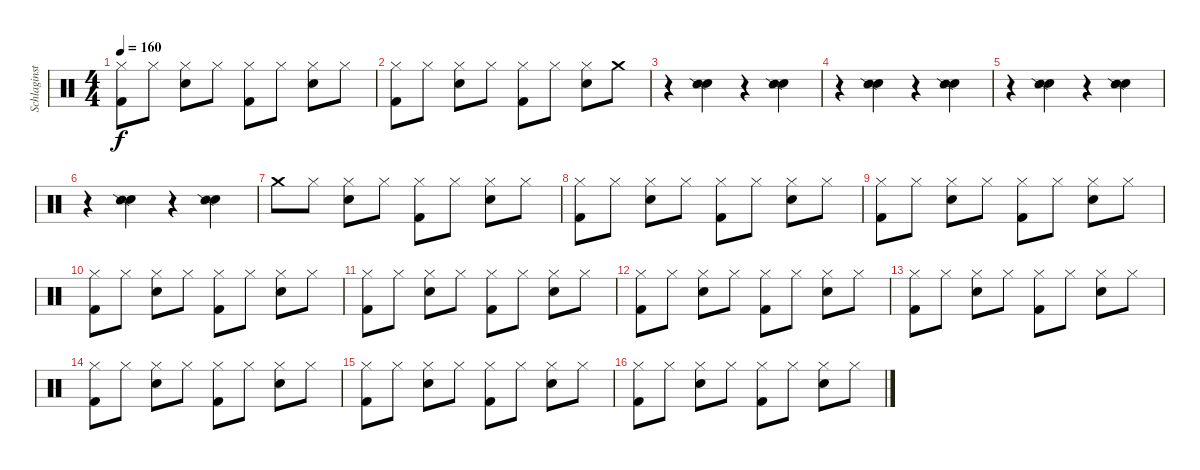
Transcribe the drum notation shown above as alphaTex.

\track ("Schlaginstrumente - Auswahl" "Schlaginst") {instrument percussion}
\staff {score}
\articulation defaults
\ts (4 4)
\tempo 160
\clef neutral
\ks c
("Hi-Hat (closed)" "Kick (hit) 2").8{dy f} "Hi-Hat (closed)".8 ("Hi-Hat (closed)" "Snare (hit) 2").8 "Hi-Hat (closed)".8 ("Hi-Hat (closed)" "Kick (hit) 2").8 "Hi-Hat (closed)".8 ("Hi-Hat (closed)" "Snare (hit) 2").8 "Hi-Hat (closed)".8 |
("Hi-Hat (closed)" "Kick (hit) 2").8 "Hi-Hat (closed)".8 ("Hi-Hat (closed)" "Snare (hit) 2").8 "Hi-Hat (closed)".8 ("Hi-Hat (closed)" "Kick (hit) 2").8 "Hi-Hat (closed)".8 ("Hi-Hat (closed)" "Snare (hit) 2").8 "Crash medium (hit)".8 |
r.4 ("Hand Clap (hit)" "Snare (side stick) 2").4 r.4 ("Hand Clap (hit)" "Snare (side stick) 2").4 |
r.4 ("Hand Clap (hit)" "Snare (side stick) 2").4 r.4 ("Hand Clap (hit)" "Snare (side stick) 2").4 |
r.4 ("Hand Clap (hit)" "Snare (side stick) 2").4 r.4 ("Hand Clap (hit)" "Snare (side stick) 2").4 |
r.4 ("Hand Clap (hit)" "Snare (side stick) 2").4 r.4 ("Hand Clap (hit)" "Snare (side stick) 2").4 |
"Crash medium (hit)".8 "Hi-Hat (closed)".8 ("Hi-Hat (closed)" "Snare (hit) 2").8 "Hi-Hat (closed)".8 ("Hi-Hat (closed)" "Kick (hit) 2").8 "Hi-Hat (closed)".8 ("Hi-Hat (closed)" "Snare (hit) 2").8 "Hi-Hat (closed)".8 |
("Hi-Hat (closed)" "Kick (hit) 2").8 "Hi-Hat (closed)".8 ("Hi-Hat (closed)" "Snare (hit) 2").8 "Hi-Hat (closed)".8 ("Hi-Hat (closed)" "Kick (hit) 2").8 "Hi-Hat (closed)".8 ("Hi-Hat (closed)" "Snare (hit) 2").8 "Hi-Hat (closed)".8 |
("Hi-Hat (closed)" "Kick (hit) 2").8 "Hi-Hat (closed)".8 ("Hi-Hat (closed)" "Snare (hit) 2").8 "Hi-Hat (closed)".8 ("Hi-Hat (closed)" "Kick (hit) 2").8 "Hi-Hat (closed)".8 ("Hi-Hat (closed)" "Snare (hit) 2").8 "Hi-Hat (closed)".8 |
("Hi-Hat (closed)" "Kick (hit) 2").8 "Hi-Hat (closed)".8 ("Hi-Hat (closed)" "Snare (hit) 2").8 "Hi-Hat (closed)".8 ("Hi-Hat (closed)" "Kick (hit) 2").8 "Hi-Hat (closed)".8 ("Hi-Hat (closed)" "Snare (hit) 2").8 "Hi-Hat (closed)".8 |
("Hi-Hat (closed)" "Kick (hit) 2").8 "Hi-Hat (closed)".8 ("Hi-Hat (closed)" "Snare (hit) 2").8 "Hi-Hat (closed)".8 ("Hi-Hat (closed)" "Kick (hit) 2").8 "Hi-Hat (closed)".8 ("Hi-Hat (closed)" "Snare (hit) 2").8 "Hi-Hat (closed)".8 |
("Hi-Hat (closed)" "Kick (hit) 2").8 "Hi-Hat (closed)".8 ("Hi-Hat (closed)" "Snare (hit) 2").8 "Hi-Hat (closed)".8 ("Hi-Hat (closed)" "Kick (hit) 2").8 "Hi-Hat (closed)".8 ("Hi-Hat (closed)" "Snare (hit) 2").8 "Hi-Hat (closed)".8 |
("Hi-Hat (closed)" "Kick (hit) 2").8 "Hi-Hat (closed)".8 ("Hi-Hat (closed)" "Snare (hit) 2").8 "Hi-Hat (closed)".8 ("Hi-Hat (closed)" "Kick (hit) 2").8 "Hi-Hat (closed)".8 ("Hi-Hat (closed)" "Snare (hit) 2").8 "Hi-Hat (closed)".8 |
("Hi-Hat (closed)" "Kick (hit) 2").8 "Hi-Hat (closed)".8 ("Hi-Hat (closed)" "Snare (hit) 2").8 "Hi-Hat (closed)".8 ("Hi-Hat (closed)" "Kick (hit) 2").8 "Hi-Hat (closed)".8 ("Hi-Hat (closed)" "Snare (hit) 2").8 "Hi-Hat (closed)".8 |
("Hi-Hat (closed)" "Kick (hit) 2").8 "Hi-Hat (closed)".8 ("Hi-Hat (closed)" "Snare (hit) 2").8 "Hi-Hat (closed)".8 ("Hi-Hat (closed)" "Kick (hit) 2").8 "Hi-Hat (closed)".8 ("Hi-Hat (closed)" "Snare (hit) 2").8 "Hi-Hat (closed)".8 |
("Hi-Hat (closed)" "Kick (hit) 2").8 "Hi-Hat (closed)".8 ("Hi-Hat (closed)" "Snare (hit) 2").8 "Hi-Hat (closed)".8 ("Hi-Hat (closed)" "Kick (hit) 2").8 "Hi-Hat (closed)".8 ("Hi-Hat (closed)" "Snare (hit) 2").8 "Hi-Hat (closed)".8
